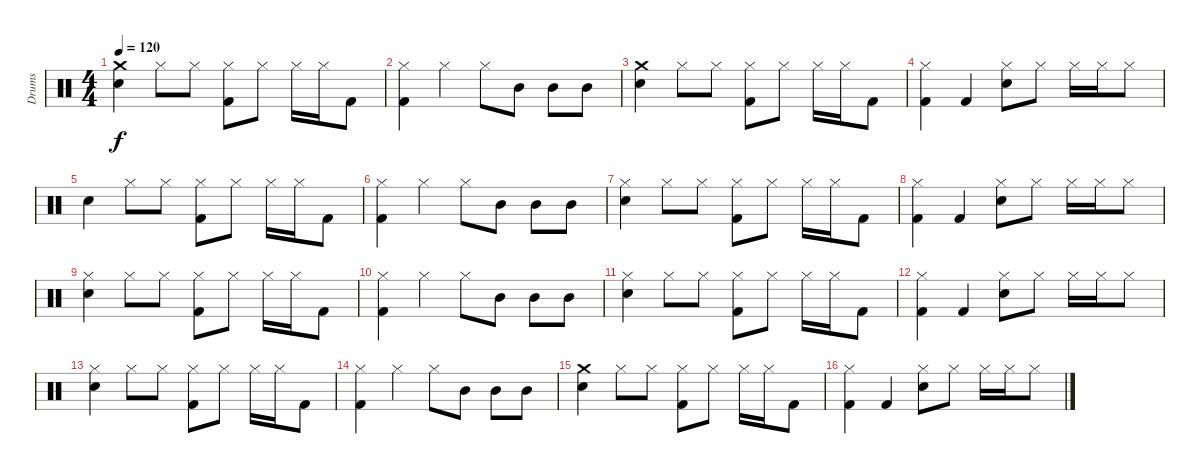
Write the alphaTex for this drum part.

\track ("Drums" "Drums") {instrument percussion}
\staff {score}
\articulation defaults
\ts (4 4)
\tempo 120
\clef neutral
\ks c
("Crash medium (hit)" "Snare (hit) 2").4{dy f} "Hi-Hat (closed)".8 "Hi-Hat (closed)".8 ("Hi-Hat (closed)" "Kick (hit) 2").8 "Hi-Hat (closed)".8 "Hi-Hat (closed)".16 "Hi-Hat (closed)".16 "Kick (hit) 2".8 |
("Hi-Hat (closed)" "Kick (hit) 2").4 "Hi-Hat (closed)".4 "Hi-Hat (closed)".8 "Mid Tom (hit)".8 "Mid Tom (hit)".8 "Mid Tom (hit)".8 |
("Crash medium (hit)" "Snare (hit) 2").4 "Hi-Hat (closed)".8 "Hi-Hat (closed)".8 ("Hi-Hat (closed)" "Kick (hit) 2").8 "Hi-Hat (closed)".8 "Hi-Hat (closed)".16 "Hi-Hat (closed)".16 "Kick (hit) 2".8 |
("Hi-Hat (closed)" "Kick (hit) 2").4 "Kick (hit) 2".4 ("Hi-Hat (closed)" "Snare (hit) 2").8 "Hi-Hat (closed)".8 "Hi-Hat (closed)".16 "Hi-Hat (closed)".16 "Hi-Hat (closed)".8 |
"Snare (hit) 2".4 "Hi-Hat (closed)".8 "Hi-Hat (closed)".8 ("Hi-Hat (closed)" "Kick (hit) 2").8 "Hi-Hat (closed)".8 "Hi-Hat (closed)".16 "Hi-Hat (closed)".16 "Kick (hit) 2".8 |
("Hi-Hat (closed)" "Kick (hit) 2").4 "Hi-Hat (closed)".4 "Hi-Hat (closed)".8 "Mid Tom (hit)".8 "Mid Tom (hit)".8 "Mid Tom (hit)".8 |
("Hi-Hat (closed)" "Snare (hit) 2").4 "Hi-Hat (closed)".8 "Hi-Hat (closed)".8 ("Hi-Hat (closed)" "Kick (hit) 2").8 "Hi-Hat (closed)".8 "Hi-Hat (closed)".16 "Hi-Hat (closed)".16 "Kick (hit) 2".8 |
("Hi-Hat (closed)" "Kick (hit) 2").4 "Kick (hit) 2".4 ("Hi-Hat (closed)" "Snare (hit) 2").8 "Hi-Hat (closed)".8 "Hi-Hat (closed)".16 "Hi-Hat (closed)".16 "Hi-Hat (closed)".8 |
("Hi-Hat (closed)" "Snare (hit) 2").4 "Hi-Hat (closed)".8 "Hi-Hat (closed)".8 ("Hi-Hat (closed)" "Kick (hit) 2").8 "Hi-Hat (closed)".8 "Hi-Hat (closed)".16 "Hi-Hat (closed)".16 "Kick (hit) 2".8 |
("Hi-Hat (closed)" "Kick (hit) 2").4 "Hi-Hat (closed)".4 "Hi-Hat (closed)".8 "Mid Tom (hit)".8 "Mid Tom (hit)".8 "Mid Tom (hit)".8 |
("Hi-Hat (closed)" "Snare (hit) 2").4 "Hi-Hat (closed)".8 "Hi-Hat (closed)".8 ("Hi-Hat (closed)" "Kick (hit) 2").8 "Hi-Hat (closed)".8 "Hi-Hat (closed)".16 "Hi-Hat (closed)".16 "Kick (hit) 2".8 |
("Hi-Hat (closed)" "Kick (hit) 2").4 "Kick (hit) 2".4 ("Hi-Hat (closed)" "Snare (hit) 2").8 "Hi-Hat (closed)".8 "Hi-Hat (closed)".16 "Hi-Hat (closed)".16 "Hi-Hat (closed)".8 |
("Hi-Hat (closed)" "Snare (hit) 2").4 "Hi-Hat (closed)".8 "Hi-Hat (closed)".8 ("Hi-Hat (closed)" "Kick (hit) 2").8 "Hi-Hat (closed)".8 "Hi-Hat (closed)".16 "Hi-Hat (closed)".16 "Kick (hit) 2".8 |
("Hi-Hat (closed)" "Kick (hit) 2").4 "Hi-Hat (closed)".4 "Hi-Hat (closed)".8 "Mid Tom (hit)".8 "Mid Tom (hit)".8 "Mid Tom (hit)".8 |
("Crash medium (hit)" "Snare (hit) 2").4 "Hi-Hat (closed)".8 "Hi-Hat (closed)".8 ("Hi-Hat (closed)" "Kick (hit) 2").8 "Hi-Hat (closed)".8 "Hi-Hat (closed)".16 "Hi-Hat (closed)".16 "Kick (hit) 2".8 |
("Hi-Hat (closed)" "Kick (hit) 2").4 "Kick (hit) 2".4 ("Hi-Hat (closed)" "Snare (hit) 2").8 "Hi-Hat (closed)".8 "Hi-Hat (closed)".16 "Hi-Hat (closed)".16 "Hi-Hat (closed)".8
